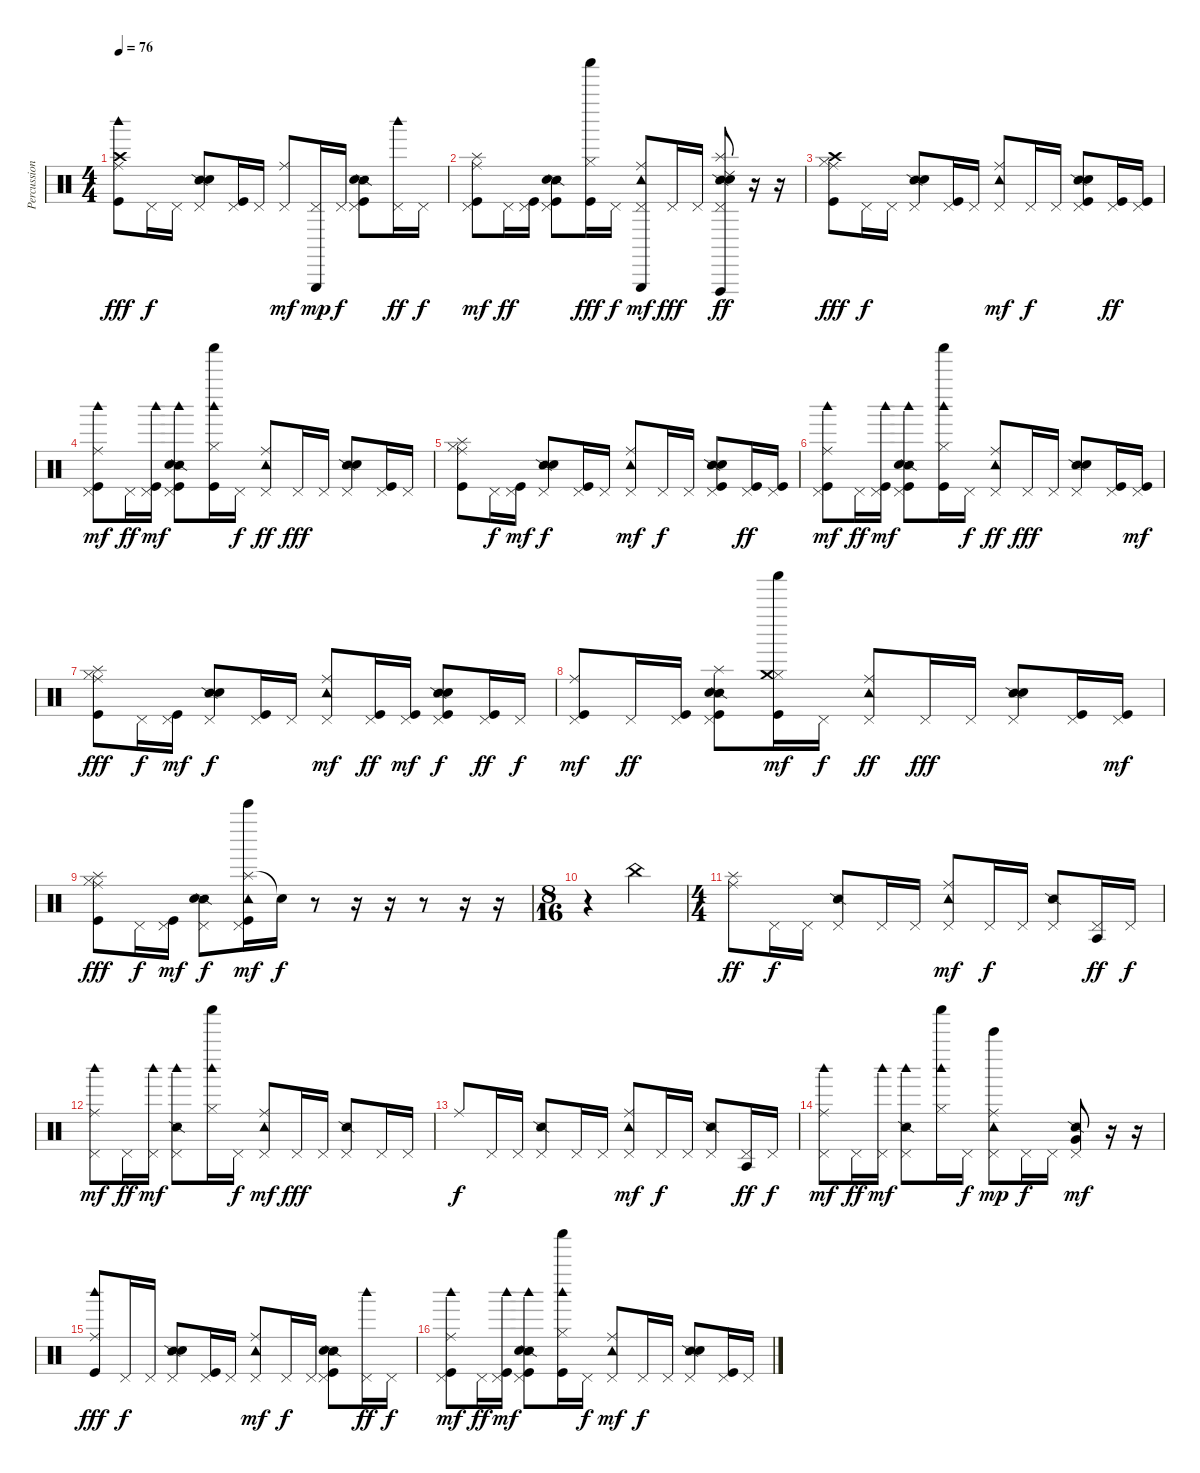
\track ("Percussion" "Percussion") {instrument percussion}
\staff {score}
\articulation defaults
\ts (4 4)
\tempo 76
\clef neutral
\ks c
("Crash high (hit)" "Ride (middle)" "Woodblock high (hit)" "Kick (hit)").8{dy fff} "Pedal Hi-Hat (hit)".16{dy f} "Pedal Hi-Hat (hit)".16 ("Pedal Hi-Hat (hit)" "Snare (side stick) 2" "Hand Clap (hit)").8 ("Pedal Hi-Hat (hit)" "Kick (hit)").16 "Pedal Hi-Hat (hit)".16 ("Pedal Hi-Hat (hit)" "Ride (middle)").8{dy mf} ("Pedal Hi-Hat (hit)" "Triangle (hit)").16{dy mp} "Pedal Hi-Hat (hit)".16{dy f} ("Pedal Hi-Hat (hit)" "Snare (side stick) 2" "Kick (hit)" "Hand Clap (hit)").8 ("Pedal Hi-Hat (hit)" "Woodblock high (hit)").16{dy ff} "Pedal Hi-Hat (hit)".16{dy f} |
("Splash (hit)" "Pedal Hi-Hat (hit)" "Ride (middle)" "Kick (hit)").8{dy mf} "Pedal Hi-Hat (hit)".16{dy ff} ("Pedal Hi-Hat (hit)" "Kick (hit)").16 ("Pedal Hi-Hat (hit)" "Snare (side stick) 2" "Kick (hit)" "Hand Clap (hit)").8 ("Hi-Hat (closed)" "Shaker (hit)" "Kick (hit)").16{dy fff} "Pedal Hi-Hat (hit)".16{dy f} ("Pedal Hi-Hat (hit)" "Ride (middle)" "Tambourine (hit)" "Triangle (hit)").8{dy mf} "Pedal Hi-Hat (hit)".16{dy fff} "Pedal Hi-Hat (hit)".16 ("Ride (choke) 2" "Pedal Hi-Hat (hit)" "Snare (side stick) 2" "Hand Clap (hit)" "Splash (hit)" "Vibraslap (hit)").8{dy ff} r.16 r.16 |
("Crash high (hit)" "Ride (middle)" "Kick (hit)" "Hi-Hat (closed)").8{dy fff} "Pedal Hi-Hat (hit)".16{dy f} "Pedal Hi-Hat (hit)".16 ("Pedal Hi-Hat (hit)" "Snare (side stick) 2" "Hand Clap (hit)").8 ("Pedal Hi-Hat (hit)" "Kick (hit)").16 "Pedal Hi-Hat (hit)".16 ("Pedal Hi-Hat (hit)" "Tambourine (hit)" "Ride (middle)").8{dy mf} "Pedal Hi-Hat (hit)".16{dy f} "Pedal Hi-Hat (hit)".16 ("Pedal Hi-Hat (hit)" "Snare (side stick) 2" "Kick (hit)" "Hand Clap (hit)").8 ("Pedal Hi-Hat (hit)" "Kick (hit)").16{dy ff} ("Pedal Hi-Hat (hit)" "Kick (hit)").16 |
("Pedal Hi-Hat (hit)" "Ride (middle)" "Kick (hit)" "Woodblock high (hit)").8{dy mf} "Pedal Hi-Hat (hit)".16{dy ff} ("Pedal Hi-Hat (hit)" "Kick (hit)" "Woodblock high (hit)").16{dy mf} ("Pedal Hi-Hat (hit)" "Snare (side stick) 2" "Kick (hit)" "Woodblock high (hit)" "Hand Clap (hit)").8 ("Hi-Hat (closed)" "Shaker (hit)" "Kick (hit)" "Woodblock high (hit)").16 "Pedal Hi-Hat (hit)".16{dy f} ("Pedal Hi-Hat (hit)" "Ride (middle)" "Tambourine (hit)").8{dy ff} "Pedal Hi-Hat (hit)".16{dy fff} "Pedal Hi-Hat (hit)".16 ("Pedal Hi-Hat (hit)" "Snare (side stick) 2" "Hand Clap (hit)").8 ("Pedal Hi-Hat (hit)" "Kick (hit)").16 "Pedal Hi-Hat (hit)".16 |
("Splash (hit)" "Ride (middle)" "Kick (hit)" "Hi-Hat (closed)").8 "Pedal Hi-Hat (hit)".16{dy f} ("Pedal Hi-Hat (hit)" "Kick (hit)").16{dy mf} ("Pedal Hi-Hat (hit)" "Snare (side stick) 2" "Hand Clap (hit)").8{dy f} ("Pedal Hi-Hat (hit)" "Kick (hit)").16 "Pedal Hi-Hat (hit)".16 ("Pedal Hi-Hat (hit)" "Tambourine (hit)" "Ride (middle)").8{dy mf} "Pedal Hi-Hat (hit)".16{dy f} "Pedal Hi-Hat (hit)".16 ("Pedal Hi-Hat (hit)" "Snare (side stick) 2" "Kick (hit)" "Hand Clap (hit)").8 ("Pedal Hi-Hat (hit)" "Kick (hit)").16{dy ff} ("Pedal Hi-Hat (hit)" "Kick (hit)").16 |
("Pedal Hi-Hat (hit)" "Ride (middle)" "Kick (hit)" "Woodblock high (hit)").8{dy mf} "Pedal Hi-Hat (hit)".16{dy ff} ("Pedal Hi-Hat (hit)" "Kick (hit)" "Woodblock high (hit)").16{dy mf} ("Pedal Hi-Hat (hit)" "Snare (side stick) 2" "Kick (hit)" "Woodblock high (hit)" "Hand Clap (hit)").8 ("Hi-Hat (closed)" "Shaker (hit)" "Kick (hit)" "Woodblock high (hit)").16 "Pedal Hi-Hat (hit)".16{dy f} ("Pedal Hi-Hat (hit)" "Ride (middle)" "Tambourine (hit)").8{dy ff} "Pedal Hi-Hat (hit)".16{dy fff} "Pedal Hi-Hat (hit)".16 ("Pedal Hi-Hat (hit)" "Snare (side stick) 2" "Hand Clap (hit)").8 ("Pedal Hi-Hat (hit)" "Kick (hit)").16 ("Pedal Hi-Hat (hit)" "Kick (hit)").16{dy mf} |
("Splash (hit)" "Ride (middle)" "Kick (hit)" "Hi-Hat (closed)").8{dy fff} "Pedal Hi-Hat (hit)".16{dy f} ("Pedal Hi-Hat (hit)" "Kick (hit)").16{dy mf} ("Pedal Hi-Hat (hit)" "Snare (side stick) 2" "Hand Clap (hit)").8{dy f} ("Pedal Hi-Hat (hit)" "Kick (hit)").16 "Pedal Hi-Hat (hit)".16 ("Pedal Hi-Hat (hit)" "Tambourine (hit)" "Ride (middle)").8{dy mf} ("Pedal Hi-Hat (hit)" "Kick (hit)").16{dy ff} ("Pedal Hi-Hat (hit)" "Kick (hit)").16{dy mf} ("Pedal Hi-Hat (hit)" "Snare (side stick) 2" "Kick (hit)" "Hand Clap (hit)").8{dy f} ("Pedal Hi-Hat (hit)" "Kick (hit)").16{dy ff} "Pedal Hi-Hat (hit)".16{dy f} |
("Pedal Hi-Hat (hit)" "Ride (middle)" "Kick (hit)").8{dy mf} "Pedal Hi-Hat (hit)".16{dy ff} ("Pedal Hi-Hat (hit)" "Kick (hit)").16 ("Splash (hit)" "Pedal Hi-Hat (hit)" "Snare (side stick) 2" "Kick (hit)" "Hand Clap (hit)").8 ("Hi-Hat (closed)" "Shaker (hit)" "Kick (hit)" "Crash medium (hit)").16{dy mf} "Pedal Hi-Hat (hit)".16{dy f} ("Pedal Hi-Hat (hit)" "Ride (middle)" "Tambourine (hit)").8{dy ff} "Pedal Hi-Hat (hit)".16{dy fff} "Pedal Hi-Hat (hit)".16 ("Pedal Hi-Hat (hit)" "Snare (side stick) 2" "Hand Clap (hit)").8 ("Pedal Hi-Hat (hit)" "Kick (hit)").16 ("Pedal Hi-Hat (hit)" "Kick (hit)").16{dy mf} |
("Splash (hit)" "Ride (middle)" "Kick (hit)" "Hi-Hat (closed)").8{dy fff} "Pedal Hi-Hat (hit)".16{dy f} ("Pedal Hi-Hat (hit)" "Kick (hit)").16{dy mf} ("Pedal Hi-Hat (hit)" "Snare (side stick) 2" "Hand Clap (hit)").8{dy f} ("Splash (hit)" "Pedal Hi-Hat (hit)" "Tambourine (hit)" "Kick (hit)" "Bell Tree (hit)").16{dy mf} "Snare (hit)"{t}.16{dy f} r.8 r.16 r.16 r.8 r.16 r.16 |
\ts (8 16)
r.4 "China (hit)".4 |
\ts (4 4)
("Ride (middle)" "Splash (hit)").8{dy ff} "Pedal Hi-Hat (hit)".16{dy f} "Pedal Hi-Hat (hit)".16 ("Pedal Hi-Hat (hit)" "Snare (side stick) 2").8 "Pedal Hi-Hat (hit)".16 "Pedal Hi-Hat (hit)".16 ("Pedal Hi-Hat (hit)" "Tambourine (hit)" "Ride (middle)").8{dy mf} "Pedal Hi-Hat (hit)".16{dy f} "Pedal Hi-Hat (hit)".16 ("Pedal Hi-Hat (hit)" "Snare (side stick) 2").8 ("Pedal Hi-Hat (hit)" "Agogo tow (hit)").16{dy ff} "Pedal Hi-Hat (hit)".16{dy f} |
("Pedal Hi-Hat (hit)" "Ride (middle)" "Woodblock high (hit)").8{dy mf} "Pedal Hi-Hat (hit)".16{dy ff} ("Pedal Hi-Hat (hit)" "Woodblock high (hit)").16{dy mf} ("Pedal Hi-Hat (hit)" "Snare (side stick) 2" "Woodblock high (hit)").8 ("Hi-Hat (closed)" "Shaker (hit)" "Woodblock high (hit)").16 "Pedal Hi-Hat (hit)".16{dy f} ("Pedal Hi-Hat (hit)" "Ride (middle)" "Tambourine (hit)").8{dy mf} "Pedal Hi-Hat (hit)".16{dy fff} "Pedal Hi-Hat (hit)".16 ("Pedal Hi-Hat (hit)" "Snare (side stick) 2").8 "Pedal Hi-Hat (hit)".16 "Pedal Hi-Hat (hit)".16 |
"Ride (middle)".8{dy f} "Pedal Hi-Hat (hit)".16 "Pedal Hi-Hat (hit)".16 ("Pedal Hi-Hat (hit)" "Snare (side stick) 2").8 "Pedal Hi-Hat (hit)".16 "Pedal Hi-Hat (hit)".16 ("Pedal Hi-Hat (hit)" "Tambourine (hit)" "Ride (middle)").8{dy mf} "Pedal Hi-Hat (hit)".16{dy f} "Pedal Hi-Hat (hit)".16 ("Pedal Hi-Hat (hit)" "Snare (side stick) 2").8 ("Pedal Hi-Hat (hit)" "Agogo tow (hit)").16{dy ff} "Pedal Hi-Hat (hit)".16{dy f} |
("Pedal Hi-Hat (hit)" "Ride (middle)" "Woodblock high (hit)").8{dy mf} "Pedal Hi-Hat (hit)".16{dy ff} ("Pedal Hi-Hat (hit)" "Woodblock high (hit)").16{dy mf} ("Pedal Hi-Hat (hit)" "Snare (side stick) 2" "Woodblock high (hit)").8 ("Hi-Hat (closed)" "Shaker (hit)" "Woodblock high (hit)").16 "Pedal Hi-Hat (hit)".16{dy f} ("Pedal Hi-Hat (hit)" "Ride (middle)" "Tambourine (hit)" "Bell Tree (hit)").8{dy mp} "Pedal Hi-Hat (hit)".16{dy f} "Pedal Hi-Hat (hit)".16 ("Pedal Hi-Hat (hit)" "Snare (side stick) 2" "Very Low Tom (hit)").8{dy mf} r.16 r.16 |
("Ride (middle)" "Woodblock high (hit)" "Kick (hit)").8{dy fff} "Pedal Hi-Hat (hit)".16{dy f} "Pedal Hi-Hat (hit)".16 ("Pedal Hi-Hat (hit)" "Snare (side stick) 2" "Hand Clap (hit)").8 ("Pedal Hi-Hat (hit)" "Kick (hit)").16 "Pedal Hi-Hat (hit)".16 ("Pedal Hi-Hat (hit)" "Tambourine (hit)" "Ride (middle)").8{dy mf} "Pedal Hi-Hat (hit)".16{dy f} "Pedal Hi-Hat (hit)".16 ("Pedal Hi-Hat (hit)" "Snare (side stick) 2" "Kick (hit)" "Hand Clap (hit)").8 ("Pedal Hi-Hat (hit)" "Woodblock high (hit)").16{dy ff} "Pedal Hi-Hat (hit)".16{dy f} |
("Pedal Hi-Hat (hit)" "Ride (middle)" "Kick (hit)" "Woodblock high (hit)").8{dy mf} "Pedal Hi-Hat (hit)".16{dy ff} ("Pedal Hi-Hat (hit)" "Kick (hit)" "Woodblock high (hit)").16{dy mf} ("Pedal Hi-Hat (hit)" "Snare (side stick) 2" "Kick (hit)" "Woodblock high (hit)" "Hand Clap (hit)").8 ("Hi-Hat (closed)" "Shaker (hit)" "Kick (hit)" "Woodblock high (hit)").16 "Pedal Hi-Hat (hit)".16{dy f} ("Pedal Hi-Hat (hit)" "Ride (middle)" "Tambourine (hit)").8{dy mf} "Pedal Hi-Hat (hit)".16{dy f} "Pedal Hi-Hat (hit)".16 ("Pedal Hi-Hat (hit)" "Snare (side stick) 2" "Hand Clap (hit)").8 ("Pedal Hi-Hat (hit)" "Kick (hit)").16 "Pedal Hi-Hat (hit)".16
